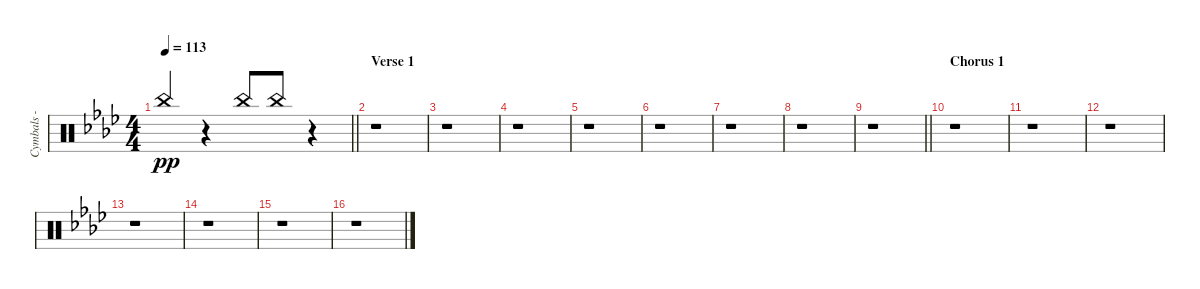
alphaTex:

\track ("Cymbals - china" "Cymbals - ") {instrument percussion}
\staff {score}
\articulation defaults
\ts (4 4)
\tempo 113
\clef neutral
\barLineRight lightlight
\ks fminor "China (hit)".4{dy pp beam Up}
r.4{beam Up} "China (hit)".8{beam Up} "China (hit)".8{beam Up} r.4 |
\section ("" "Verse 1")
r.1 |
r.1 |
r.1 |
r.1 |
r.1 |
r.1 |
r.1 |
\barLineRight lightlight
r.1 |
\section ("" "Chorus 1")
r.1 |
r.1 |
r.1 |
r.1 |
r.1 |
r.1 |
r.1
